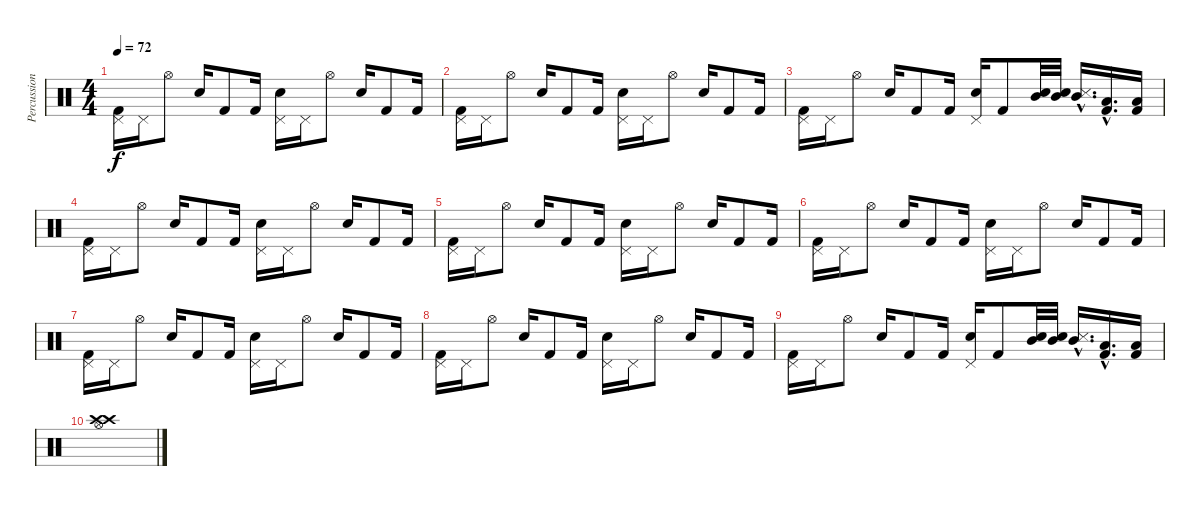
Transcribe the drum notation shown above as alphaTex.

\track ("Percussion" "Percussion") {instrument percussion}
\staff {score}
\articulation defaults
\ts (4 4)
\tempo 72
\clef neutral
\ks c
("Kick (hit) 2" "Pedal Hi-Hat (hit)").16{dy f} "Pedal Hi-Hat (hit)".16 "Hi-Hat (open)".8 "Snare (hit) 2".16 "Kick (hit) 2".8 "Kick (hit) 2".16 ("Pedal Hi-Hat (hit)" "Snare (hit) 2").16 "Pedal Hi-Hat (hit)".16 "Hi-Hat (open)".8 "Snare (hit) 2".16 "Kick (hit) 2".8 "Kick (hit) 2".16 |
("Kick (hit) 2" "Pedal Hi-Hat (hit)").16 "Pedal Hi-Hat (hit)".16 "Hi-Hat (open)".8 "Snare (hit) 2".16 "Kick (hit) 2".8 "Kick (hit) 2".16 ("Pedal Hi-Hat (hit)" "Snare (hit) 2").16 "Pedal Hi-Hat (hit)".16 "Hi-Hat (open)".8 "Snare (hit) 2".16 "Kick (hit) 2".8 "Kick (hit) 2".16 |
("Kick (hit) 2" "Pedal Hi-Hat (hit)").16 "Pedal Hi-Hat (hit)".16 "Hi-Hat (open)".8 "Snare (hit) 2".16 "Kick (hit) 2".8 "Kick (hit) 2".16 ("Pedal Hi-Hat (hit)" "Snare (hit) 2").16 "Kick (hit) 2".8 ("Snare (hit) 2" "Mid Tom (hit)").32 ("Snare (hit) 2" "Mid Tom (hit)").32 ("Snare (side stick) 3"{hac} "Mid Tom (hit)"{hac}).16{d} ("Low Tom (hit)"{hac} "Kick (hit) 2"{hac}).16{d} ("Low Floor Tom (hit)" "Kick (hit) 2").16 |
("Kick (hit) 2" "Pedal Hi-Hat (hit)").16 "Pedal Hi-Hat (hit)".16 "Hi-Hat (open)".8 "Snare (hit) 2".16 "Kick (hit) 2".8 "Kick (hit) 2".16 ("Pedal Hi-Hat (hit)" "Snare (hit) 2").16 "Pedal Hi-Hat (hit)".16 "Hi-Hat (open)".8 "Snare (hit) 2".16 "Kick (hit) 2".8 "Kick (hit) 2".16 |
("Kick (hit) 2" "Pedal Hi-Hat (hit)").16 "Pedal Hi-Hat (hit)".16 "Hi-Hat (open)".8 "Snare (hit) 2".16 "Kick (hit) 2".8 "Kick (hit) 2".16 ("Pedal Hi-Hat (hit)" "Snare (hit) 2").16 "Pedal Hi-Hat (hit)".16 "Hi-Hat (open)".8 "Snare (hit) 2".16 "Kick (hit) 2".8 "Kick (hit) 2".16 |
("Kick (hit) 2" "Pedal Hi-Hat (hit)").16 "Pedal Hi-Hat (hit)".16 "Hi-Hat (open)".8 "Snare (hit) 2".16 "Kick (hit) 2".8 "Kick (hit) 2".16 ("Pedal Hi-Hat (hit)" "Snare (hit) 2").16 "Pedal Hi-Hat (hit)".16 "Hi-Hat (open)".8 "Snare (hit) 2".16 "Kick (hit) 2".8 "Kick (hit) 2".16 |
("Kick (hit) 2" "Pedal Hi-Hat (hit)").16 "Pedal Hi-Hat (hit)".16 "Hi-Hat (open)".8 "Snare (hit) 2".16 "Kick (hit) 2".8 "Kick (hit) 2".16 ("Pedal Hi-Hat (hit)" "Snare (hit) 2").16 "Pedal Hi-Hat (hit)".16 "Hi-Hat (open)".8 "Snare (hit) 2".16 "Kick (hit) 2".8 "Kick (hit) 2".16 |
("Kick (hit) 2" "Pedal Hi-Hat (hit)").16 "Pedal Hi-Hat (hit)".16 "Hi-Hat (open)".8 "Snare (hit) 2".16 "Kick (hit) 2".8 "Kick (hit) 2".16 ("Pedal Hi-Hat (hit)" "Snare (hit) 2").16 "Pedal Hi-Hat (hit)".16 "Hi-Hat (open)".8 "Snare (hit) 2".16 "Kick (hit) 2".8 "Kick (hit) 2".16 |
("Kick (hit) 2" "Pedal Hi-Hat (hit)").16 "Pedal Hi-Hat (hit)".16 "Hi-Hat (open)".8 "Snare (hit) 2".16 "Kick (hit) 2".8 "Kick (hit) 2".16 ("Pedal Hi-Hat (hit)" "Snare (hit) 2").16 "Kick (hit) 2".8 ("Snare (hit) 2" "Mid Tom (hit)").32 ("Snare (hit) 2" "Mid Tom (hit)").32 ("Snare (side stick) 3"{hac} "Mid Tom (hit)"{hac}).16{d} ("Low Tom (hit)"{hac} "Kick (hit) 2"{hac}).16{d} ("Low Floor Tom (hit)" "Kick (hit) 2").16 |
("Crash high (hit)" "Hi-Hat (open)" "Crash high (hit)").1
